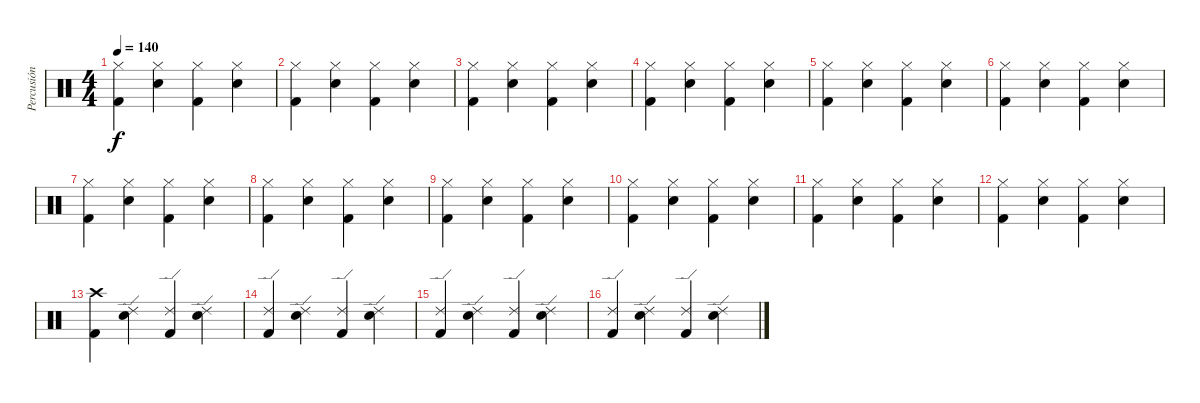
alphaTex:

\track ("Percusión" "Percusión") {instrument percussion}
\staff {score}
\articulation defaults
\ts (4 4)
\tempo 140
\clef neutral
\ks c
("Hi-Hat (closed)" "Kick (hit) 2").4{dy f} ("Hi-Hat (closed)" "Snare (hit) 2").4 ("Hi-Hat (closed)" "Kick (hit) 2").4 ("Hi-Hat (closed)" "Snare (hit) 2").4 |
("Hi-Hat (closed)" "Kick (hit) 2").4 ("Hi-Hat (closed)" "Snare (hit) 2").4 ("Hi-Hat (closed)" "Kick (hit) 2").4 ("Hi-Hat (closed)" "Snare (hit) 2").4 |
("Hi-Hat (closed)" "Kick (hit) 2").4 ("Hi-Hat (closed)" "Snare (hit) 2").4 ("Hi-Hat (closed)" "Kick (hit) 2").4 ("Hi-Hat (closed)" "Snare (hit) 2").4 |
("Hi-Hat (closed)" "Kick (hit) 2").4 ("Hi-Hat (closed)" "Snare (hit) 2").4 ("Hi-Hat (closed)" "Kick (hit) 2").4 ("Hi-Hat (closed)" "Snare (hit) 2").4 |
("Hi-Hat (closed)" "Kick (hit) 2").4 ("Hi-Hat (closed)" "Snare (hit) 2").4 ("Hi-Hat (closed)" "Kick (hit) 2").4 ("Hi-Hat (closed)" "Snare (hit) 2").4 |
("Hi-Hat (closed)" "Kick (hit) 2").4 ("Hi-Hat (closed)" "Snare (hit) 2").4 ("Hi-Hat (closed)" "Kick (hit) 2").4 ("Hi-Hat (closed)" "Snare (hit) 2").4 |
("Hi-Hat (closed)" "Kick (hit) 2").4 ("Hi-Hat (closed)" "Snare (hit) 2").4 ("Hi-Hat (closed)" "Kick (hit) 2").4 ("Hi-Hat (closed)" "Snare (hit) 2").4 |
("Hi-Hat (closed)" "Kick (hit) 2").4 ("Hi-Hat (closed)" "Snare (hit) 2").4 ("Hi-Hat (closed)" "Kick (hit) 2").4 ("Hi-Hat (closed)" "Snare (hit) 2").4 |
("Hi-Hat (closed)" "Kick (hit) 2").4 ("Hi-Hat (closed)" "Snare (hit) 2").4 ("Hi-Hat (closed)" "Kick (hit) 2").4 ("Hi-Hat (closed)" "Snare (hit) 2").4 |
("Hi-Hat (closed)" "Kick (hit) 2").4 ("Hi-Hat (closed)" "Snare (hit) 2").4 ("Hi-Hat (closed)" "Kick (hit) 2").4 ("Hi-Hat (closed)" "Snare (hit) 2").4 |
("Hi-Hat (closed)" "Kick (hit) 2").4 ("Hi-Hat (closed)" "Snare (hit) 2").4 ("Hi-Hat (closed)" "Kick (hit) 2").4 ("Hi-Hat (closed)" "Snare (hit) 2").4 |
("Hi-Hat (closed)" "Kick (hit) 2").4 ("Hi-Hat (closed)" "Snare (hit) 2").4 ("Hi-Hat (closed)" "Kick (hit) 2").4 ("Hi-Hat (closed)" "Snare (hit) 2").4 |
("Crash high (hit)" "Kick (hit) 2").4 ("Ride (edge) 2" "Snare (hit) 2").4 ("Ride (edge) 2" "Kick (hit) 2").4 ("Ride (edge) 2" "Snare (hit) 2").4 |
("Ride (edge) 2" "Kick (hit) 2").4 ("Ride (edge) 2" "Snare (hit) 2").4 ("Ride (edge) 2" "Kick (hit) 2").4 ("Ride (edge) 2" "Snare (hit) 2").4 |
("Ride (edge) 2" "Kick (hit) 2").4 ("Ride (edge) 2" "Snare (hit) 2").4 ("Ride (edge) 2" "Kick (hit) 2").4 ("Ride (edge) 2" "Snare (hit) 2").4 |
("Ride (edge) 2" "Kick (hit) 2").4 ("Ride (edge) 2" "Snare (hit) 2").4 ("Ride (edge) 2" "Kick (hit) 2").4 ("Ride (edge) 2" "Snare (hit) 2").4
